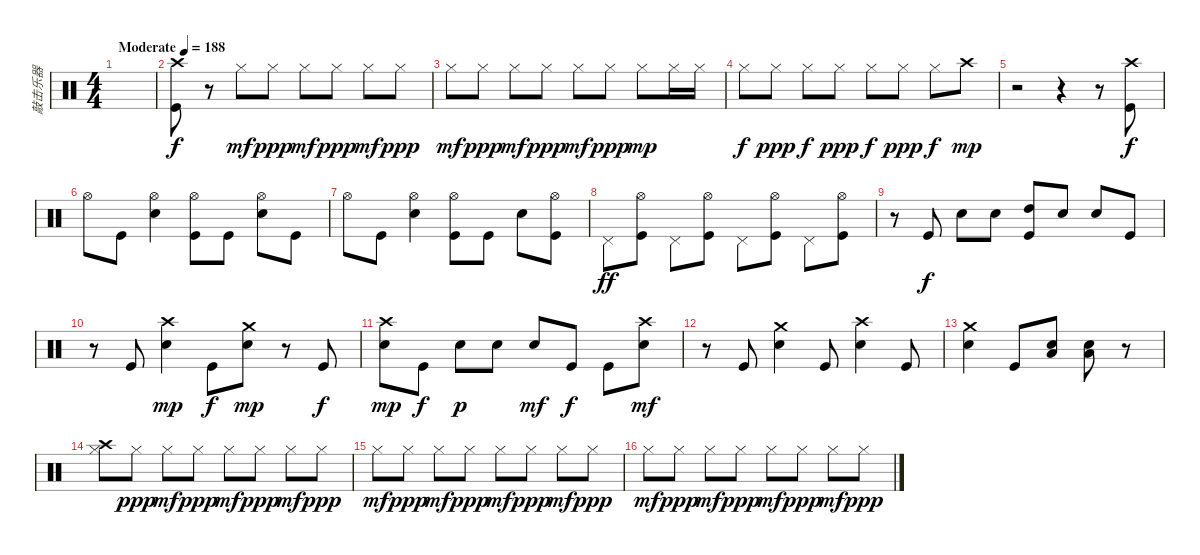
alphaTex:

\track ("敲击乐器" "敲击乐器") {instrument percussion}
\staff {score}
\articulation defaults
\ts (4 4)
\tempo (188 "Moderate")
\clef neutral
\ks c
|
("Crash high (hit)" "Kick (hit)").8 r.8 "Hi-Hat (closed)".8{dy mf} "Hi-Hat (closed)".8{dy ppp} "Hi-Hat (closed)".8{dy mf} "Hi-Hat (closed)".8{dy ppp} "Hi-Hat (closed)".8{dy mf} "Hi-Hat (closed)".8{dy ppp} |
"Hi-Hat (closed)".8{dy mf} "Hi-Hat (closed)".8{dy ppp} "Hi-Hat (closed)".8{dy mf} "Hi-Hat (closed)".8{dy ppp} "Hi-Hat (closed)".8{dy mf} "Hi-Hat (closed)".8{dy ppp} "Hi-Hat (closed)".8{dy mp} "Hi-Hat (closed)".16 "Hi-Hat (closed)".16 |
"Hi-Hat (closed)".8{dy f} "Hi-Hat (closed)".8{dy ppp} "Hi-Hat (closed)".8{dy f} "Hi-Hat (closed)".8{dy ppp} "Hi-Hat (closed)".8{dy f} "Hi-Hat (closed)".8{dy ppp} "Hi-Hat (closed)".8{dy f} "Crash high (hit)".8{dy mp} |
r.2 r.4 r.8 ("Crash high (hit)" "Kick (hit)").8{dy f} |
"Hi-Hat (open)".8 "Kick (hit)".8 ("Hi-Hat (open)" "Snare (hit) 2").4 ("Hi-Hat (open)" "Kick (hit)").8 "Kick (hit)".8 ("Hi-Hat (open)" "Snare (hit) 2").8 "Kick (hit)".8 |
"Hi-Hat (open)".8 "Kick (hit)".8 ("Hi-Hat (open)" "Snare (hit) 2").4 ("Hi-Hat (open)" "Kick (hit)").8 "Kick (hit)".8 "Snare (hit) 2".8 ("Hi-Hat (open)" "Kick (hit)").8 |
"Pedal Hi-Hat (hit)".8{dy ff} ("Hi-Hat (open)" "Kick (hit)").8 "Pedal Hi-Hat (hit)".8 ("Hi-Hat (open)" "Kick (hit)").8 "Pedal Hi-Hat (hit)".8 ("Hi-Hat (open)" "Kick (hit)").8 "Pedal Hi-Hat (hit)".8 ("Hi-Hat (open)" "Kick (hit)").8 |
r.8 "Kick (hit)".8{dy f} "Snare (hit) 2".8 "Snare (hit) 2".8 ("High Tom (hit)" "Kick (hit)").8 "Snare (hit) 2".8 "Snare (hit) 2".8 "Kick (hit)".8 |
r.8 "Kick (hit)".8 ("Crash high (hit)" "Snare (hit) 2").4{dy mp} "Kick (hit)".8{dy f} ("Crash medium (hit)" "Snare (hit) 2").8{dy mp} r.8 "Kick (hit)".8{dy f} |
("Crash high (hit)" "Snare (hit) 2").8{dy mp} "Kick (hit)".8{dy f} "Snare (hit) 2".8{dy p} "Snare (hit) 2".8 "Snare (hit) 2".8{dy mf} "Kick (hit)".8{dy f} "Kick (hit)".8 ("Crash high (hit)" "Snare (hit) 2").8{dy mf} |
r.8 "Kick (hit)".8 ("Crash medium (hit)" "Snare (hit) 2").4 "Kick (hit)".8 ("Crash high (hit)" "Snare (hit) 2").4 "Kick (hit)".8 |
("Crash medium (hit)" "Snare (hit) 2").4 "Kick (hit)".8 ("Low Tom (hit)" "Snare (hit) 2").8 ("Low Tom (hit)" "Snare (hit) 2").8 r.8 |
("Hi-Hat (closed)" "Crash high (hit)").8 "Hi-Hat (closed)".8{dy ppp} "Hi-Hat (closed)".8{dy mf} "Hi-Hat (closed)".8{dy ppp} "Hi-Hat (closed)".8{dy mf} "Hi-Hat (closed)".8{dy ppp} "Hi-Hat (closed)".8{dy mf} "Hi-Hat (closed)".8{dy ppp} |
"Hi-Hat (closed)".8{dy mf} "Hi-Hat (closed)".8{dy ppp} "Hi-Hat (closed)".8{dy mf} "Hi-Hat (closed)".8{dy ppp} "Hi-Hat (closed)".8{dy mf} "Hi-Hat (closed)".8{dy ppp} "Hi-Hat (closed)".8{dy mf} "Hi-Hat (closed)".8{dy ppp} |
"Hi-Hat (closed)".8{dy mf} "Hi-Hat (closed)".8{dy ppp} "Hi-Hat (closed)".8{dy mf} "Hi-Hat (closed)".8{dy ppp} "Hi-Hat (closed)".8{dy mf} "Hi-Hat (closed)".8{dy ppp} "Hi-Hat (closed)".8{dy mf} "Hi-Hat (closed)".8{dy ppp}
